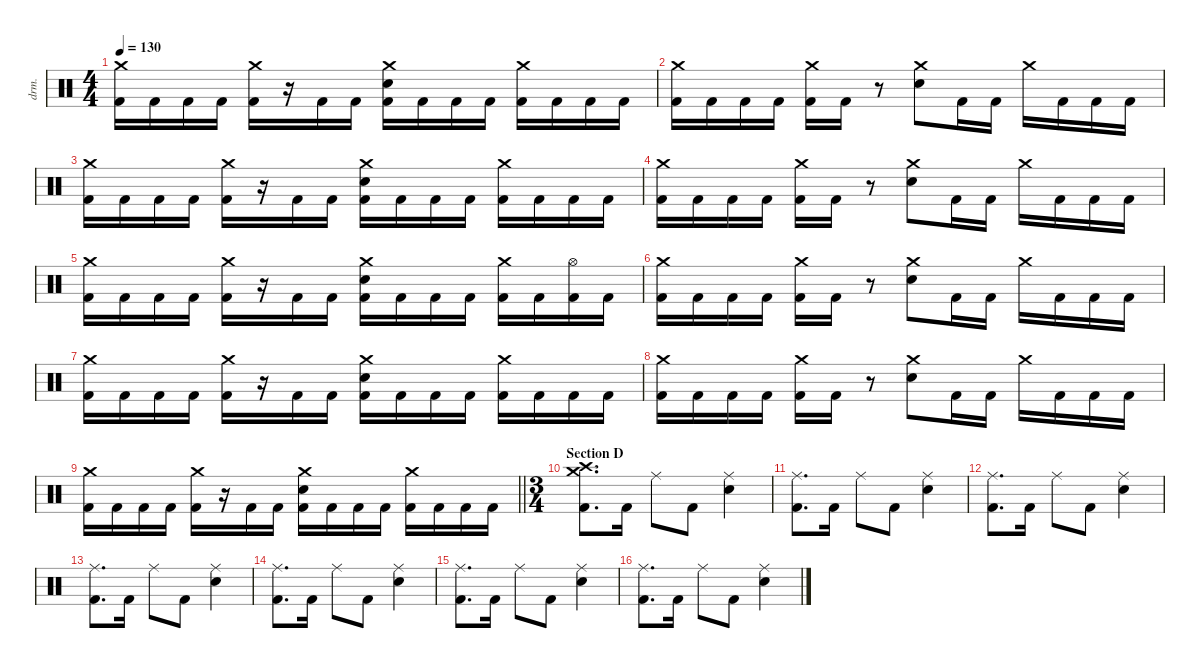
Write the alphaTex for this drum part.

\defaultSystemsLayout 4
\hideDynamics
\bracketExtendMode nobrackets
\otherSystemsTrackNameOrientation horizontal
\track ("Percussion" "drm.") {instrument percussion}
\staff {score}
\articulation defaults
\ts (4 4)
\tempo 130
\clef neutral
\ks c
("Crash medium (hit)" "Kick (hit) 2").16{dy f beam Down} "Kick (hit) 2".16{beam Down} "Kick (hit) 2".16{beam Down} "Kick (hit) 2".16{beam Down} ("Crash medium (hit)" "Kick (hit) 2").16{beam Down} r.16{beam Down} "Kick (hit) 2".16{beam Down} "Kick (hit) 2".16{beam Down} ("Crash medium (hit)" "Snare (hit) 2" "Kick (hit) 2").16{beam Down} "Kick (hit) 2".16{beam Down} "Kick (hit) 2".16{beam Down} "Kick (hit) 2".16{beam Down} ("Crash medium (hit)" "Kick (hit) 2").16{beam Down} "Kick (hit) 2".16{beam Down} "Kick (hit) 2".16{beam Down} "Kick (hit) 2".16{beam Down} |
("Crash medium (hit)" "Kick (hit) 2").16{beam Down} "Kick (hit) 2".16{beam Down} "Kick (hit) 2".16{beam Down} "Kick (hit) 2".16{beam Down} ("Crash medium (hit)" "Kick (hit) 2").16{beam Down} "Kick (hit) 2".16{beam Down} r.8{beam Down} ("Crash medium (hit)" "Snare (hit) 2").8{beam Down} "Kick (hit) 2".16{beam Down} "Kick (hit) 2".16{beam Down} "Crash medium (hit)".16{beam Down} "Kick (hit) 2".16{beam Down} "Kick (hit) 2".16{beam Down} "Kick (hit) 2".16{beam Down} |
("Crash medium (hit)" "Kick (hit) 2").16{beam Down} "Kick (hit) 2".16{beam Down} "Kick (hit) 2".16{beam Down} "Kick (hit) 2".16{beam Down} ("Crash medium (hit)" "Kick (hit) 2").16{beam Down} r.16{beam Down} "Kick (hit) 2".16{beam Down} "Kick (hit) 2".16{beam Down} ("Crash medium (hit)" "Snare (hit) 2" "Kick (hit) 2").16{beam Down} "Kick (hit) 2".16{beam Down} "Kick (hit) 2".16{beam Down} "Kick (hit) 2".16{beam Down} ("Crash medium (hit)" "Kick (hit) 2").16{beam Down} "Kick (hit) 2".16{beam Down} "Kick (hit) 2".16{beam Down} "Kick (hit) 2".16{beam Down} |
("Crash medium (hit)" "Kick (hit) 2").16{beam Down} "Kick (hit) 2".16{beam Down} "Kick (hit) 2".16{beam Down} "Kick (hit) 2".16{beam Down} ("Crash medium (hit)" "Kick (hit) 2").16{beam Down} "Kick (hit) 2".16{beam Down} r.8{beam Down} ("Crash medium (hit)" "Snare (hit) 2").8{beam Down} "Kick (hit) 2".16{beam Down} "Kick (hit) 2".16{beam Down} "Crash medium (hit)".16{beam Down} "Kick (hit) 2".16{beam Down} "Kick (hit) 2".16{beam Down} "Kick (hit) 2".16{beam Down} |
("Crash medium (hit)" "Kick (hit) 2").16{beam Down} "Kick (hit) 2".16{beam Down} "Kick (hit) 2".16{beam Down} "Kick (hit) 2".16{beam Down} ("Crash medium (hit)" "Kick (hit) 2").16{beam Down} r.16{beam Down} "Kick (hit) 2".16{beam Down} "Kick (hit) 2".16{beam Down} ("Crash medium (hit)" "Snare (hit) 2" "Kick (hit) 2").16{beam Down} "Kick (hit) 2".16{beam Down} "Kick (hit) 2".16{beam Down} "Kick (hit) 2".16{beam Down} ("Crash medium (hit)" "Kick (hit) 2").16{beam Down} "Kick (hit) 2".16{beam Down} ("Hi-Hat (open)" "Kick (hit) 2").16{beam Down} "Kick (hit) 2".16{beam Down} |
("Crash medium (hit)" "Kick (hit) 2").16{beam Down} "Kick (hit) 2".16{beam Down} "Kick (hit) 2".16{beam Down} "Kick (hit) 2".16{beam Down} ("Crash medium (hit)" "Kick (hit) 2").16{beam Down} "Kick (hit) 2".16{beam Down} r.8{beam Down} ("Crash medium (hit)" "Snare (hit) 2").8{beam Down} "Kick (hit) 2".16{beam Down} "Kick (hit) 2".16{beam Down} "Crash medium (hit)".16{beam Down} "Kick (hit) 2".16{beam Down} "Kick (hit) 2".16{beam Down} "Kick (hit) 2".16{beam Down} |
("Crash medium (hit)" "Kick (hit) 2").16{beam Down} "Kick (hit) 2".16{beam Down} "Kick (hit) 2".16{beam Down} "Kick (hit) 2".16{beam Down} ("Crash medium (hit)" "Kick (hit) 2").16{beam Down} r.16{beam Down} "Kick (hit) 2".16{beam Down} "Kick (hit) 2".16{beam Down} ("Crash medium (hit)" "Snare (hit) 2" "Kick (hit) 2").16{beam Down} "Kick (hit) 2".16{beam Down} "Kick (hit) 2".16{beam Down} "Kick (hit) 2".16{beam Down} ("Crash medium (hit)" "Kick (hit) 2").16{beam Down} "Kick (hit) 2".16{beam Down} "Kick (hit) 2".16{beam Down} "Kick (hit) 2".16{beam Down} |
("Crash medium (hit)" "Kick (hit) 2").16{beam Down} "Kick (hit) 2".16{beam Down} "Kick (hit) 2".16{beam Down} "Kick (hit) 2".16{beam Down} ("Crash medium (hit)" "Kick (hit) 2").16{beam Down} "Kick (hit) 2".16{beam Down} r.8{beam Down} ("Crash medium (hit)" "Snare (hit) 2").8{beam Down} "Kick (hit) 2".16{beam Down} "Kick (hit) 2".16{beam Down} "Crash medium (hit)".16{beam Down} "Kick (hit) 2".16{beam Down} "Kick (hit) 2".16{beam Down} "Kick (hit) 2".16{beam Down} |
\barLineRight lightlight
("Crash medium (hit)" "Kick (hit) 2").16{beam Down} "Kick (hit) 2".16{beam Down} "Kick (hit) 2".16{beam Down} "Kick (hit) 2".16{beam Down} ("Crash medium (hit)" "Kick (hit) 2").16{beam Down} r.16{beam Down} "Kick (hit) 2".16{beam Down} "Kick (hit) 2".16{beam Down} ("Crash medium (hit)" "Snare (hit) 2" "Kick (hit) 2").16{beam Down} "Kick (hit) 2".16{beam Down} "Kick (hit) 2".16{beam Down} "Kick (hit) 2".16{beam Down} ("Crash medium (hit)" "Kick (hit) 2").16{beam Down} "Kick (hit) 2".16{beam Down} "Kick (hit) 2".16{beam Down} "Kick (hit) 2".16{beam Down} |
\ts (3 4)
\beaming (8 2 2 2)
\section ("" "Section D")
("Crash medium (hit)" "Crash high (hit)" "Kick (hit) 2").8{d beam Down} "Kick (hit) 2".16{beam Down} "Ride (middle)".8{beam Down} "Kick (hit) 2".8{beam Down} ("Ride (middle)" "Snare (hit) 2").4{beam Down} |
("Ride (middle)" "Kick (hit) 2").8{d beam Down} "Kick (hit) 2".16{beam Down} "Ride (middle)".8{beam Down} "Kick (hit) 2".8{beam Down} ("Ride (middle)" "Snare (hit) 2").4{beam Down} |
("Ride (middle)" "Kick (hit) 2").8{d beam Down} "Kick (hit) 2".16{beam Down} "Ride (middle)".8{beam Down} "Kick (hit) 2".8{beam Down} ("Ride (middle)" "Snare (hit) 2").4{beam Down} |
("Ride (middle)" "Kick (hit) 2").8{d beam Down} "Kick (hit) 2".16{beam Down} "Ride (middle)".8{beam Down} "Kick (hit) 2".8{beam Down} ("Ride (middle)" "Snare (hit) 2").4{beam Down} |
("Ride (middle)" "Kick (hit) 2").8{d beam Down} "Kick (hit) 2".16{beam Down} "Ride (middle)".8{beam Down} "Kick (hit) 2".8{beam Down} ("Ride (middle)" "Snare (hit) 2").4{beam Down} |
("Ride (middle)" "Kick (hit) 2").8{d beam Down} "Kick (hit) 2".16{beam Down} "Ride (middle)".8{beam Down} "Kick (hit) 2".8{beam Down} ("Ride (middle)" "Snare (hit) 2").4{beam Down} |
("Ride (middle)" "Kick (hit) 2").8{d beam Down} "Kick (hit) 2".16{beam Down} "Ride (middle)".8{beam Down} "Kick (hit) 2".8{beam Down} ("Ride (middle)" "Snare (hit) 2").4{beam Down}
